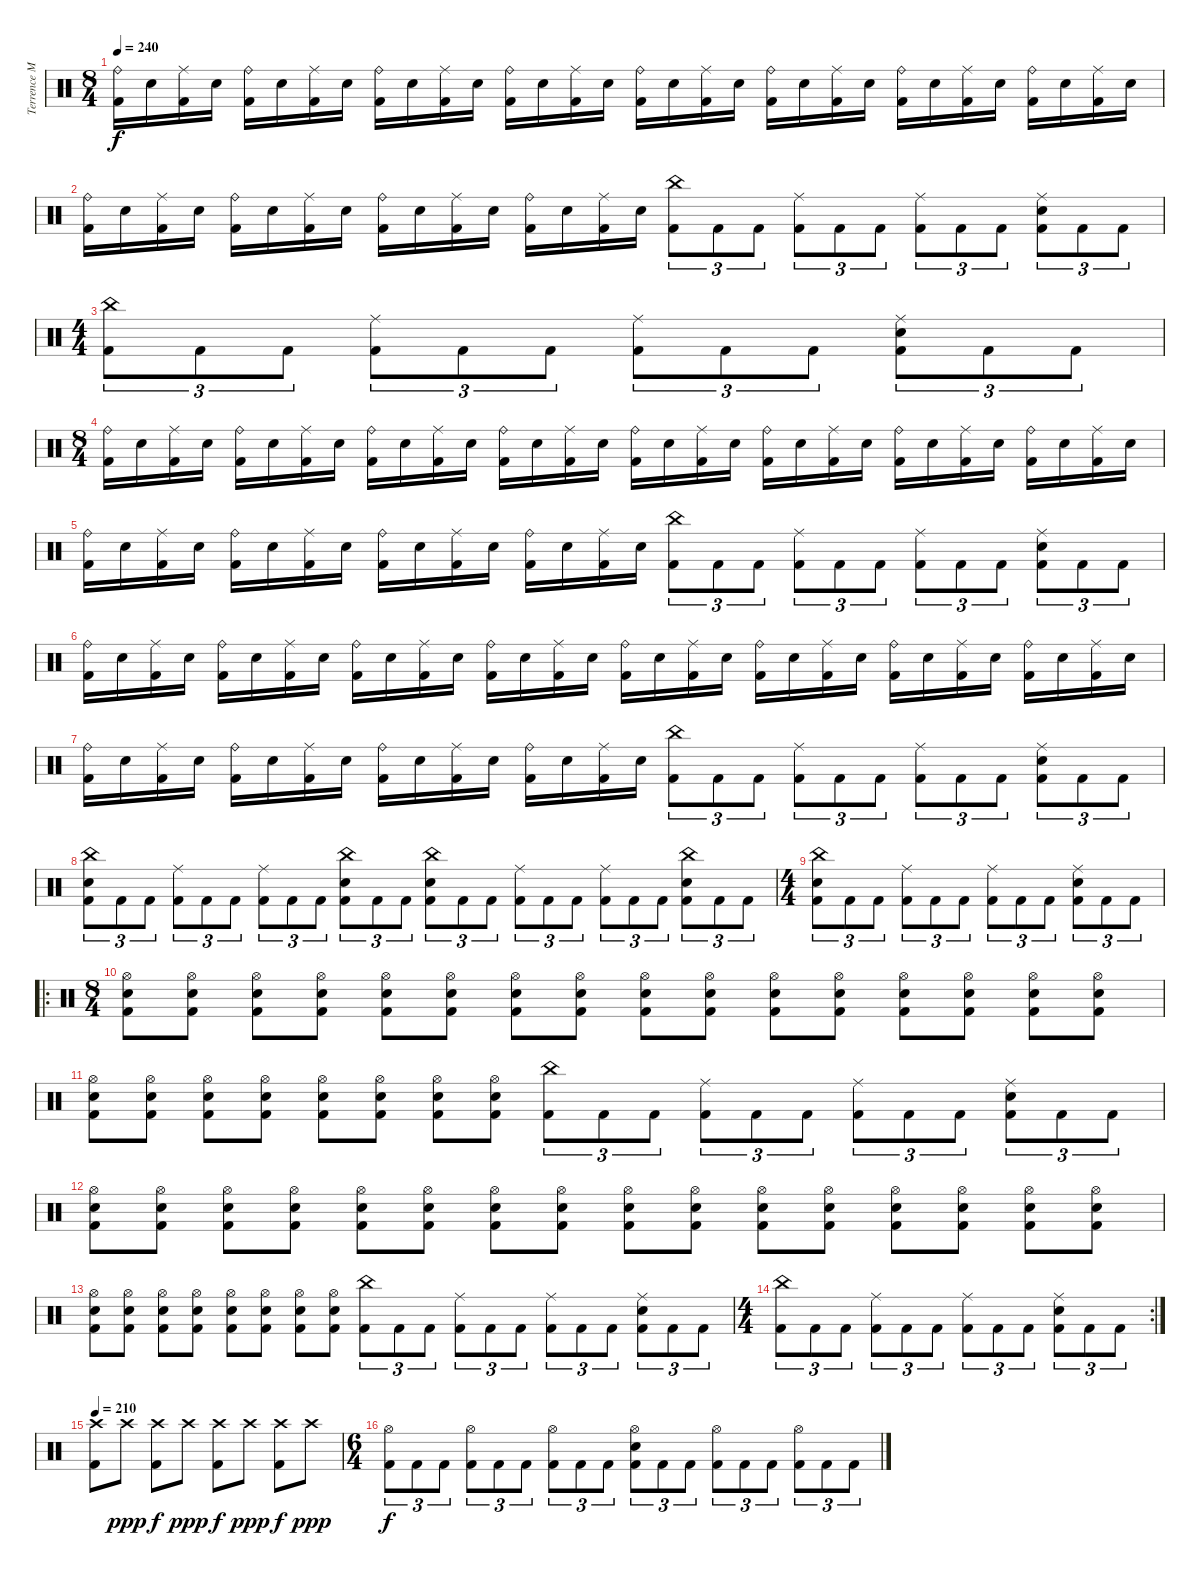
\track ("Terrence Manauis" "Terrence M") {instrument percussion}
\staff {score}
\articulation defaults
\ts (8 4)
\tempo 240
\clef neutral
\ks c
("Ride (bell)" "Kick (hit) 2").16{dy f} "Electric Snare (hit)".16 ("Ride (middle)" "Kick (hit) 2").16 "Electric Snare (hit)".16 ("Ride (bell)" "Kick (hit) 2").16 "Electric Snare (hit)".16 ("Ride (middle)" "Kick (hit) 2").16 "Electric Snare (hit)".16 ("Ride (bell)" "Kick (hit) 2").16 "Electric Snare (hit)".16 ("Ride (middle)" "Kick (hit) 2").16 "Electric Snare (hit)".16 ("Ride (bell)" "Kick (hit) 2").16 "Electric Snare (hit)".16 ("Ride (middle)" "Kick (hit) 2").16 "Electric Snare (hit)".16 ("Ride (bell)" "Kick (hit) 2").16 "Electric Snare (hit)".16 ("Ride (middle)" "Kick (hit) 2").16 "Electric Snare (hit)".16 ("Ride (bell)" "Kick (hit) 2").16 "Electric Snare (hit)".16 ("Ride (middle)" "Kick (hit) 2").16 "Electric Snare (hit)".16 ("Ride (bell)" "Kick (hit) 2").16 "Electric Snare (hit)".16 ("Ride (middle)" "Kick (hit) 2").16 "Electric Snare (hit)".16 ("Ride (bell)" "Kick (hit) 2").16 "Electric Snare (hit)".16 ("Ride (middle)" "Kick (hit) 2").16 "Electric Snare (hit)".16 |
("Ride (bell)" "Kick (hit) 2").16 "Electric Snare (hit)".16 ("Ride (middle)" "Kick (hit) 2").16 "Electric Snare (hit)".16 ("Ride (bell)" "Kick (hit) 2").16 "Electric Snare (hit)".16 ("Ride (middle)" "Kick (hit) 2").16 "Electric Snare (hit)".16 ("Ride (bell)" "Kick (hit) 2").16 "Electric Snare (hit)".16 ("Ride (middle)" "Kick (hit) 2").16 "Electric Snare (hit)".16 ("Ride (bell)" "Kick (hit) 2").16 "Electric Snare (hit)".16 ("Ride (middle)" "Kick (hit) 2").16 "Electric Snare (hit)".16 ("China (hit)" "Kick (hit) 2").8{tu (3 2)} "Kick (hit) 2".8{tu (3 2)} "Kick (hit) 2".8{tu (3 2)} ("Ride (middle)" "Kick (hit) 2").8{tu (3 2)} "Kick (hit) 2".8{tu (3 2)} "Kick (hit) 2".8{tu (3 2)} ("Ride (middle)" "Kick (hit) 2").8{tu (3 2)} "Kick (hit) 2".8{tu (3 2)} "Kick (hit) 2".8{tu (3 2)} ("Ride (middle)" "Electric Snare (hit)" "Kick (hit) 2").8{tu (3 2)} "Kick (hit) 2".8{tu (3 2)} "Kick (hit) 2".8{tu (3 2)} |
\ts (4 4)
("China (hit)" "Kick (hit) 2").8{tu (3 2)} "Kick (hit) 2".8{tu (3 2)} "Kick (hit) 2".8{tu (3 2)} ("Ride (middle)" "Kick (hit) 2").8{tu (3 2)} "Kick (hit) 2".8{tu (3 2)} "Kick (hit) 2".8{tu (3 2)} ("Ride (middle)" "Kick (hit) 2").8{tu (3 2)} "Kick (hit) 2".8{tu (3 2)} "Kick (hit) 2".8{tu (3 2)} ("Ride (middle)" "Electric Snare (hit)" "Kick (hit) 2").8{tu (3 2)} "Kick (hit) 2".8{tu (3 2)} "Kick (hit) 2".8{tu (3 2)} |
\ts (8 4)
("Ride (bell)" "Kick (hit) 2").16 "Electric Snare (hit)".16 ("Ride (middle)" "Kick (hit) 2").16 "Electric Snare (hit)".16 ("Ride (bell)" "Kick (hit) 2").16 "Electric Snare (hit)".16 ("Ride (middle)" "Kick (hit) 2").16 "Electric Snare (hit)".16 ("Ride (bell)" "Kick (hit) 2").16 "Electric Snare (hit)".16 ("Ride (middle)" "Kick (hit) 2").16 "Electric Snare (hit)".16 ("Ride (bell)" "Kick (hit) 2").16 "Electric Snare (hit)".16 ("Ride (middle)" "Kick (hit) 2").16 "Electric Snare (hit)".16 ("Ride (bell)" "Kick (hit) 2").16 "Electric Snare (hit)".16 ("Ride (middle)" "Kick (hit) 2").16 "Electric Snare (hit)".16 ("Ride (bell)" "Kick (hit) 2").16 "Electric Snare (hit)".16 ("Ride (middle)" "Kick (hit) 2").16 "Electric Snare (hit)".16 ("Ride (bell)" "Kick (hit) 2").16 "Electric Snare (hit)".16 ("Ride (middle)" "Kick (hit) 2").16 "Electric Snare (hit)".16 ("Ride (bell)" "Kick (hit) 2").16 "Electric Snare (hit)".16 ("Ride (middle)" "Kick (hit) 2").16 "Electric Snare (hit)".16 |
("Ride (bell)" "Kick (hit) 2").16 "Electric Snare (hit)".16 ("Ride (middle)" "Kick (hit) 2").16 "Electric Snare (hit)".16 ("Ride (bell)" "Kick (hit) 2").16 "Electric Snare (hit)".16 ("Ride (middle)" "Kick (hit) 2").16 "Electric Snare (hit)".16 ("Ride (bell)" "Kick (hit) 2").16 "Electric Snare (hit)".16 ("Ride (middle)" "Kick (hit) 2").16 "Electric Snare (hit)".16 ("Ride (bell)" "Kick (hit) 2").16 "Electric Snare (hit)".16 ("Ride (middle)" "Kick (hit) 2").16 "Electric Snare (hit)".16 ("China (hit)" "Kick (hit) 2").8{tu (3 2)} "Kick (hit) 2".8{tu (3 2)} "Kick (hit) 2".8{tu (3 2)} ("Ride (middle)" "Kick (hit) 2").8{tu (3 2)} "Kick (hit) 2".8{tu (3 2)} "Kick (hit) 2".8{tu (3 2)} ("Ride (middle)" "Kick (hit) 2").8{tu (3 2)} "Kick (hit) 2".8{tu (3 2)} "Kick (hit) 2".8{tu (3 2)} ("Ride (middle)" "Electric Snare (hit)" "Kick (hit) 2").8{tu (3 2)} "Kick (hit) 2".8{tu (3 2)} "Kick (hit) 2".8{tu (3 2)} |
("Ride (bell)" "Kick (hit) 2").16 "Electric Snare (hit)".16 ("Ride (middle)" "Kick (hit) 2").16 "Electric Snare (hit)".16 ("Ride (bell)" "Kick (hit) 2").16 "Electric Snare (hit)".16 ("Ride (middle)" "Kick (hit) 2").16 "Electric Snare (hit)".16 ("Ride (bell)" "Kick (hit) 2").16 "Electric Snare (hit)".16 ("Ride (middle)" "Kick (hit) 2").16 "Electric Snare (hit)".16 ("Ride (bell)" "Kick (hit) 2").16 "Electric Snare (hit)".16 ("Ride (middle)" "Kick (hit) 2").16 "Electric Snare (hit)".16 ("Ride (bell)" "Kick (hit) 2").16 "Electric Snare (hit)".16 ("Ride (middle)" "Kick (hit) 2").16 "Electric Snare (hit)".16 ("Ride (bell)" "Kick (hit) 2").16 "Electric Snare (hit)".16 ("Ride (middle)" "Kick (hit) 2").16 "Electric Snare (hit)".16 ("Ride (bell)" "Kick (hit) 2").16 "Electric Snare (hit)".16 ("Ride (middle)" "Kick (hit) 2").16 "Electric Snare (hit)".16 ("Ride (bell)" "Kick (hit) 2").16 "Electric Snare (hit)".16 ("Ride (middle)" "Kick (hit) 2").16 "Electric Snare (hit)".16 |
("Ride (bell)" "Kick (hit) 2").16 "Electric Snare (hit)".16 ("Ride (middle)" "Kick (hit) 2").16 "Electric Snare (hit)".16 ("Ride (bell)" "Kick (hit) 2").16 "Electric Snare (hit)".16 ("Ride (middle)" "Kick (hit) 2").16 "Electric Snare (hit)".16 ("Ride (bell)" "Kick (hit) 2").16 "Electric Snare (hit)".16 ("Ride (middle)" "Kick (hit) 2").16 "Electric Snare (hit)".16 ("Ride (bell)" "Kick (hit) 2").16 "Electric Snare (hit)".16 ("Ride (middle)" "Kick (hit) 2").16 "Electric Snare (hit)".16 ("China (hit)" "Kick (hit) 2").8{tu (3 2)} "Kick (hit) 2".8{tu (3 2)} "Kick (hit) 2".8{tu (3 2)} ("Ride (middle)" "Kick (hit) 2").8{tu (3 2)} "Kick (hit) 2".8{tu (3 2)} "Kick (hit) 2".8{tu (3 2)} ("Ride (middle)" "Kick (hit) 2").8{tu (3 2)} "Kick (hit) 2".8{tu (3 2)} "Kick (hit) 2".8{tu (3 2)} ("Ride (middle)" "Electric Snare (hit)" "Kick (hit) 2").8{tu (3 2)} "Kick (hit) 2".8{tu (3 2)} "Kick (hit) 2".8{tu (3 2)} |
("China (hit)" "Electric Snare (hit)" "Kick (hit) 2").8{tu (3 2)} "Kick (hit) 2".8{tu (3 2)} "Kick (hit) 2".8{tu (3 2)} ("Ride (middle)" "Kick (hit) 2").8{tu (3 2)} "Kick (hit) 2".8{tu (3 2)} "Kick (hit) 2".8{tu (3 2)} ("Ride (middle)" "Kick (hit) 2").8{tu (3 2)} "Kick (hit) 2".8{tu (3 2)} "Kick (hit) 2".8{tu (3 2)} ("China (hit)" "Electric Snare (hit)" "Kick (hit) 2").8{tu (3 2)} "Kick (hit) 2".8{tu (3 2)} "Kick (hit) 2".8{tu (3 2)} ("China (hit)" "Electric Snare (hit)" "Kick (hit) 2").8{tu (3 2)} "Kick (hit) 2".8{tu (3 2)} "Kick (hit) 2".8{tu (3 2)} ("Ride (middle)" "Kick (hit) 2").8{tu (3 2)} "Kick (hit) 2".8{tu (3 2)} "Kick (hit) 2".8{tu (3 2)} ("Ride (middle)" "Kick (hit) 2").8{tu (3 2)} "Kick (hit) 2".8{tu (3 2)} "Kick (hit) 2".8{tu (3 2)} ("China (hit)" "Electric Snare (hit)" "Kick (hit) 2").8{tu (3 2)} "Kick (hit) 2".8{tu (3 2)} "Kick (hit) 2".8{tu (3 2)} |
\ts (4 4)
("China (hit)" "Electric Snare (hit)" "Kick (hit) 2").8{tu (3 2)} "Kick (hit) 2".8{tu (3 2)} "Kick (hit) 2".8{tu (3 2)} ("Ride (middle)" "Kick (hit) 2").8{tu (3 2)} "Kick (hit) 2".8{tu (3 2)} "Kick (hit) 2".8{tu (3 2)} ("Ride (middle)" "Kick (hit) 2").8{tu (3 2)} "Kick (hit) 2".8{tu (3 2)} "Kick (hit) 2".8{tu (3 2)} ("Ride (middle)" "Electric Snare (hit)" "Kick (hit) 2").8{tu (3 2)} "Kick (hit) 2".8{tu (3 2)} "Kick (hit) 2".8{tu (3 2)} |
\ro
\ts (8 4)
("Hi-Hat (open)" "Electric Snare (hit)" "Kick (hit) 2").8 ("Hi-Hat (open)" "Electric Snare (hit)" "Kick (hit) 2").8 ("Hi-Hat (open)" "Electric Snare (hit)" "Kick (hit) 2").8 ("Hi-Hat (open)" "Electric Snare (hit)" "Kick (hit) 2").8 ("Hi-Hat (open)" "Electric Snare (hit)" "Kick (hit) 2").8 ("Hi-Hat (open)" "Electric Snare (hit)" "Kick (hit) 2").8 ("Hi-Hat (open)" "Electric Snare (hit)" "Kick (hit) 2").8 ("Hi-Hat (open)" "Electric Snare (hit)" "Kick (hit) 2").8 ("Hi-Hat (open)" "Electric Snare (hit)" "Kick (hit) 2").8 ("Hi-Hat (open)" "Electric Snare (hit)" "Kick (hit) 2").8 ("Hi-Hat (open)" "Electric Snare (hit)" "Kick (hit) 2").8 ("Hi-Hat (open)" "Electric Snare (hit)" "Kick (hit) 2").8 ("Hi-Hat (open)" "Electric Snare (hit)" "Kick (hit) 2").8 ("Hi-Hat (open)" "Electric Snare (hit)" "Kick (hit) 2").8 ("Hi-Hat (open)" "Electric Snare (hit)" "Kick (hit) 2").8 ("Hi-Hat (open)" "Electric Snare (hit)" "Kick (hit) 2").8 |
("Hi-Hat (open)" "Electric Snare (hit)" "Kick (hit) 2").8 ("Hi-Hat (open)" "Electric Snare (hit)" "Kick (hit) 2").8 ("Hi-Hat (open)" "Electric Snare (hit)" "Kick (hit) 2").8 ("Hi-Hat (open)" "Electric Snare (hit)" "Kick (hit) 2").8 ("Hi-Hat (open)" "Electric Snare (hit)" "Kick (hit) 2").8 ("Hi-Hat (open)" "Electric Snare (hit)" "Kick (hit) 2").8 ("Hi-Hat (open)" "Electric Snare (hit)" "Kick (hit) 2").8 ("Hi-Hat (open)" "Electric Snare (hit)" "Kick (hit) 2").8 ("China (hit)" "Kick (hit) 2").8{tu (3 2)} "Kick (hit) 2".8{tu (3 2)} "Kick (hit) 2".8{tu (3 2)} ("Ride (middle)" "Kick (hit) 2").8{tu (3 2)} "Kick (hit) 2".8{tu (3 2)} "Kick (hit) 2".8{tu (3 2)} ("Ride (middle)" "Kick (hit) 2").8{tu (3 2)} "Kick (hit) 2".8{tu (3 2)} "Kick (hit) 2".8{tu (3 2)} ("Ride (middle)" "Electric Snare (hit)" "Kick (hit) 2").8{tu (3 2)} "Kick (hit) 2".8{tu (3 2)} "Kick (hit) 2".8{tu (3 2)} |
("Hi-Hat (open)" "Electric Snare (hit)" "Kick (hit) 2").8 ("Hi-Hat (open)" "Electric Snare (hit)" "Kick (hit) 2").8 ("Hi-Hat (open)" "Electric Snare (hit)" "Kick (hit) 2").8 ("Hi-Hat (open)" "Electric Snare (hit)" "Kick (hit) 2").8 ("Hi-Hat (open)" "Electric Snare (hit)" "Kick (hit) 2").8 ("Hi-Hat (open)" "Electric Snare (hit)" "Kick (hit) 2").8 ("Hi-Hat (open)" "Electric Snare (hit)" "Kick (hit) 2").8 ("Hi-Hat (open)" "Electric Snare (hit)" "Kick (hit) 2").8 ("Hi-Hat (open)" "Electric Snare (hit)" "Kick (hit) 2").8 ("Hi-Hat (open)" "Electric Snare (hit)" "Kick (hit) 2").8 ("Hi-Hat (open)" "Electric Snare (hit)" "Kick (hit) 2").8 ("Hi-Hat (open)" "Electric Snare (hit)" "Kick (hit) 2").8 ("Hi-Hat (open)" "Electric Snare (hit)" "Kick (hit) 2").8 ("Hi-Hat (open)" "Electric Snare (hit)" "Kick (hit) 2").8 ("Hi-Hat (open)" "Electric Snare (hit)" "Kick (hit) 2").8 ("Hi-Hat (open)" "Electric Snare (hit)" "Kick (hit) 2").8 |
("Hi-Hat (open)" "Electric Snare (hit)" "Kick (hit) 2").8 ("Hi-Hat (open)" "Electric Snare (hit)" "Kick (hit) 2").8 ("Hi-Hat (open)" "Electric Snare (hit)" "Kick (hit) 2").8 ("Hi-Hat (open)" "Electric Snare (hit)" "Kick (hit) 2").8 ("Hi-Hat (open)" "Electric Snare (hit)" "Kick (hit) 2").8 ("Hi-Hat (open)" "Electric Snare (hit)" "Kick (hit) 2").8 ("Hi-Hat (open)" "Electric Snare (hit)" "Kick (hit) 2").8 ("Hi-Hat (open)" "Electric Snare (hit)" "Kick (hit) 2").8 ("China (hit)" "Kick (hit) 2").8{tu (3 2)} "Kick (hit) 2".8{tu (3 2)} "Kick (hit) 2".8{tu (3 2)} ("Ride (middle)" "Kick (hit) 2").8{tu (3 2)} "Kick (hit) 2".8{tu (3 2)} "Kick (hit) 2".8{tu (3 2)} ("Ride (middle)" "Kick (hit) 2").8{tu (3 2)} "Kick (hit) 2".8{tu (3 2)} "Kick (hit) 2".8{tu (3 2)} ("Ride (middle)" "Electric Snare (hit)" "Kick (hit) 2").8{tu (3 2)} "Kick (hit) 2".8{tu (3 2)} "Kick (hit) 2".8{tu (3 2)} |
\rc 2
\ts (4 4)
("China (hit)" "Kick (hit) 2").8{tu (3 2)} "Kick (hit) 2".8{tu (3 2)} "Kick (hit) 2".8{tu (3 2)} ("Ride (middle)" "Kick (hit) 2").8{tu (3 2)} "Kick (hit) 2".8{tu (3 2)} "Kick (hit) 2".8{tu (3 2)} ("Ride (middle)" "Kick (hit) 2").8{tu (3 2)} "Kick (hit) 2".8{tu (3 2)} "Kick (hit) 2".8{tu (3 2)} ("Ride (middle)" "Electric Snare (hit)" "Kick (hit) 2").8{tu (3 2)} "Kick (hit) 2".8{tu (3 2)} "Kick (hit) 2".8{tu (3 2)} |
\tempo 210
("Crash high (hit)" "Kick (hit) 2").8 "Crash high (hit)".8{dy ppp} ("Crash high (hit)" "Kick (hit) 2").8{dy f} "Crash high (hit)".8{dy ppp} ("Crash high (hit)" "Kick (hit) 2").8{dy f} "Crash high (hit)".8{dy ppp} ("Crash high (hit)" "Kick (hit) 2").8{dy f} "Crash high (hit)".8{dy ppp} |
\ts (6 4)
("Hi-Hat (open)" "Kick (hit) 2").8{tu (3 2) dy f} "Kick (hit) 2".8{tu (3 2)} "Kick (hit) 2".8{tu (3 2)} ("Hi-Hat (open)" "Kick (hit) 2").8{tu (3 2)} "Kick (hit) 2".8{tu (3 2)} "Kick (hit) 2".8{tu (3 2)} ("Hi-Hat (open)" "Kick (hit) 2").8{tu (3 2)} "Kick (hit) 2".8{tu (3 2)} "Kick (hit) 2".8{tu (3 2)} ("Hi-Hat (open)" "Electric Snare (hit)" "Kick (hit) 2").8{tu (3 2)} "Kick (hit) 2".8{tu (3 2)} "Kick (hit) 2".8{tu (3 2)} ("Hi-Hat (open)" "Kick (hit) 2").8{tu (3 2)} "Kick (hit) 2".8{tu (3 2)} "Kick (hit) 2".8{tu (3 2)} ("Hi-Hat (open)" "Kick (hit) 2").8{tu (3 2)} "Kick (hit) 2".8{tu (3 2)} "Kick (hit) 2".8{tu (3 2)}
